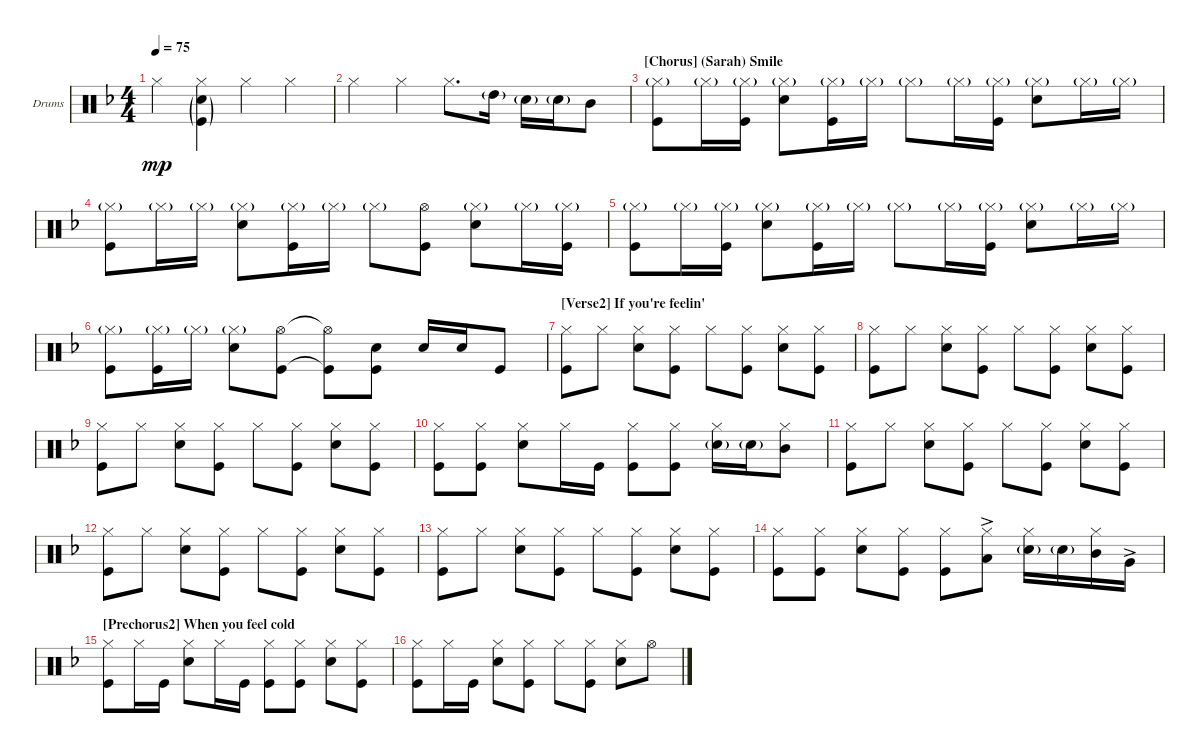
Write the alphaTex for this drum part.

\defaultSystemsLayout 4
\bracketExtendMode groupsimilarinstruments
\firstSystemTrackNameOrientation horizontal
\otherSystemsTrackNameOrientation horizontal
\track ("Drumkit" "Drums") {instrument percussion}
\staff {score}
\articulation defaults
\ts (4 4)
\tempo 75
\clef neutral
\ks dminor "Hi-Hat (closed)".4{dy mp}
("Hi-Hat (closed)" "Kick (hit)"{g} "Snare (hit) 2"{g}).4 "Hi-Hat (closed)".4 "Hi-Hat (closed)".4 |
"Hi-Hat (closed)".4 "Hi-Hat (closed)".4 "Hi-Hat (closed)".8{d} "High Tom (hit)"{g}.16 "Snare (hit) 2"{g}.16 "Snare (hit) 2"{g}.16 "Mid Tom (hit)".8 |
\section ("" "[Chorus] (Sarah) Smile")
("Hi-Hat (closed)"{g} "Kick (hit)").8 "Hi-Hat (closed)"{g}.16 ("Hi-Hat (closed)"{g} "Kick (hit)").16 ("Hi-Hat (closed)"{g} "Snare (hit) 2").8 ("Hi-Hat (closed)"{g} "Kick (hit)").16 "Hi-Hat (closed)"{g}.16 "Hi-Hat (closed)"{g}.8 "Hi-Hat (closed)"{g}.16 ("Hi-Hat (closed)"{g} "Kick (hit)").16 ("Hi-Hat (closed)"{g} "Snare (hit) 2").8 "Hi-Hat (closed)"{g}.16 "Hi-Hat (closed)"{g}.16 |
("Hi-Hat (closed)"{g} "Kick (hit)").8 "Hi-Hat (closed)"{g}.16 "Hi-Hat (closed)"{g}.16 ("Hi-Hat (closed)"{g} "Snare (hit) 2").8 ("Hi-Hat (closed)"{g} "Kick (hit)").16 "Hi-Hat (closed)"{g}.16 "Hi-Hat (closed)"{g}.8 ("Hi-Hat (open)" "Kick (hit)").8 ("Hi-Hat (closed)"{g} "Snare (hit) 2").8 "Hi-Hat (closed)"{g}.16 ("Hi-Hat (closed)"{g} "Kick (hit)").16 |
("Hi-Hat (closed)"{g} "Kick (hit)").8 "Hi-Hat (closed)"{g}.16 ("Hi-Hat (closed)"{g} "Kick (hit)").16 ("Hi-Hat (closed)"{g} "Snare (hit) 2").8 ("Hi-Hat (closed)"{g} "Kick (hit)").16 "Hi-Hat (closed)"{g}.16 "Hi-Hat (closed)"{g}.8 "Hi-Hat (closed)"{g}.16 ("Hi-Hat (closed)"{g} "Kick (hit)").16 ("Hi-Hat (closed)"{g} "Snare (hit) 2").8 "Hi-Hat (closed)"{g}.16 "Hi-Hat (closed)"{g}.16 |
("Hi-Hat (closed)"{g} "Kick (hit)").8 ("Hi-Hat (closed)"{g} "Kick (hit)").16 "Hi-Hat (closed)"{g}.16 ("Hi-Hat (closed)"{g} "Snare (hit) 2").8 ("Hi-Hat (open)" "Kick (hit)").8 ("Hi-Hat (open)"{t} "Kick (hit)"{t}).8 ("Kick (hit)" "Snare (hit) 2").8 "Snare (hit) 2".16 "Snare (hit) 2".16 "Kick (hit)".8 |
\section ("" "[Verse2] If you're feelin'")
("Hi-Hat (closed)" "Kick (hit)").8 "Hi-Hat (closed)".8 ("Hi-Hat (closed)" "Snare (hit) 2").8 ("Hi-Hat (closed)" "Kick (hit)").8 "Hi-Hat (closed)".8 ("Hi-Hat (closed)" "Kick (hit)").8 ("Hi-Hat (closed)" "Snare (hit) 2").8 ("Hi-Hat (closed)" "Kick (hit)").8 |
("Hi-Hat (closed)" "Kick (hit)").8 "Hi-Hat (closed)".8 ("Hi-Hat (closed)" "Snare (hit) 2").8 ("Hi-Hat (closed)" "Kick (hit)").8 "Hi-Hat (closed)".8 ("Hi-Hat (closed)" "Kick (hit)").8 ("Hi-Hat (closed)" "Snare (hit) 2").8 ("Hi-Hat (closed)" "Kick (hit)").8 |
("Hi-Hat (closed)" "Kick (hit)").8 "Hi-Hat (closed)".8 ("Hi-Hat (closed)" "Snare (hit) 2").8 ("Hi-Hat (closed)" "Kick (hit)").8 "Hi-Hat (closed)".8 ("Hi-Hat (closed)" "Kick (hit)").8 ("Hi-Hat (closed)" "Snare (hit) 2").8 ("Hi-Hat (closed)" "Kick (hit)").8 |
("Hi-Hat (closed)" "Kick (hit)").8 ("Hi-Hat (closed)" "Kick (hit)").8 ("Hi-Hat (closed)" "Snare (hit) 2").8 "Hi-Hat (closed)".16 "Kick (hit)".16 ("Hi-Hat (closed)" "Kick (hit)").8 ("Hi-Hat (closed)" "Kick (hit)").8 ("Hi-Hat (closed)" "Snare (hit) 2"{g}).16 "Snare (hit) 2"{g}.16 ("Hi-Hat (closed)" "Mid Tom (hit)").8 |
("Hi-Hat (closed)" "Kick (hit)").8 "Hi-Hat (closed)".8 ("Hi-Hat (closed)" "Snare (hit) 2").8 ("Hi-Hat (closed)" "Kick (hit)").8 "Hi-Hat (closed)".8 ("Hi-Hat (closed)" "Kick (hit)").8 ("Hi-Hat (closed)" "Snare (hit) 2").8 ("Hi-Hat (closed)" "Kick (hit)").8 |
("Hi-Hat (closed)" "Kick (hit)").8 "Hi-Hat (closed)".8 ("Hi-Hat (closed)" "Snare (hit) 2").8 ("Hi-Hat (closed)" "Kick (hit)").8 "Hi-Hat (closed)".8 ("Hi-Hat (closed)" "Kick (hit)").8 ("Hi-Hat (closed)" "Snare (hit) 2").8 ("Hi-Hat (closed)" "Kick (hit)").8 |
("Hi-Hat (closed)" "Kick (hit)").8 "Hi-Hat (closed)".8 ("Hi-Hat (closed)" "Snare (hit) 2").8 ("Hi-Hat (closed)" "Kick (hit)").8 "Hi-Hat (closed)".8 ("Hi-Hat (closed)" "Kick (hit)").8 ("Hi-Hat (closed)" "Snare (hit) 2").8 ("Hi-Hat (closed)" "Kick (hit)").8 |
("Hi-Hat (closed)" "Kick (hit)").8 ("Hi-Hat (closed)" "Kick (hit)").8 ("Hi-Hat (closed)" "Snare (hit) 2").8 ("Hi-Hat (closed)" "Kick (hit)").8 ("Hi-Hat (closed)" "Kick (hit)").8 ("Hi-Hat (closed)" "Low Tom (hit)"{ac}).8 ("Hi-Hat (closed)" "Snare (hit) 2"{g}).16 "Snare (hit) 2"{g}.16 ("Hi-Hat (closed)" "Mid Tom (hit)").16 "Very Low Tom (hit)"{ac}.16 |
\section ("" "[Prechorus2] When you feel cold")
("Hi-Hat (closed)" "Kick (hit)").8 "Hi-Hat (closed)".16 "Kick (hit)".16 ("Hi-Hat (closed)" "Snare (hit) 2").8 "Hi-Hat (closed)".16 "Kick (hit)".16 ("Hi-Hat (closed)" "Kick (hit)").8 ("Hi-Hat (closed)" "Kick (hit)").8 ("Hi-Hat (closed)" "Snare (hit) 2").8 ("Hi-Hat (closed)" "Kick (hit)").8 |
("Hi-Hat (closed)" "Kick (hit)").8 "Hi-Hat (closed)".16 "Kick (hit)".16 ("Hi-Hat (closed)" "Snare (hit) 2").8 ("Hi-Hat (closed)" "Kick (hit)").8 "Hi-Hat (closed)".8 ("Hi-Hat (closed)" "Kick (hit)").8 ("Hi-Hat (closed)" "Snare (hit) 2").8 "Hi-Hat (open)".8
